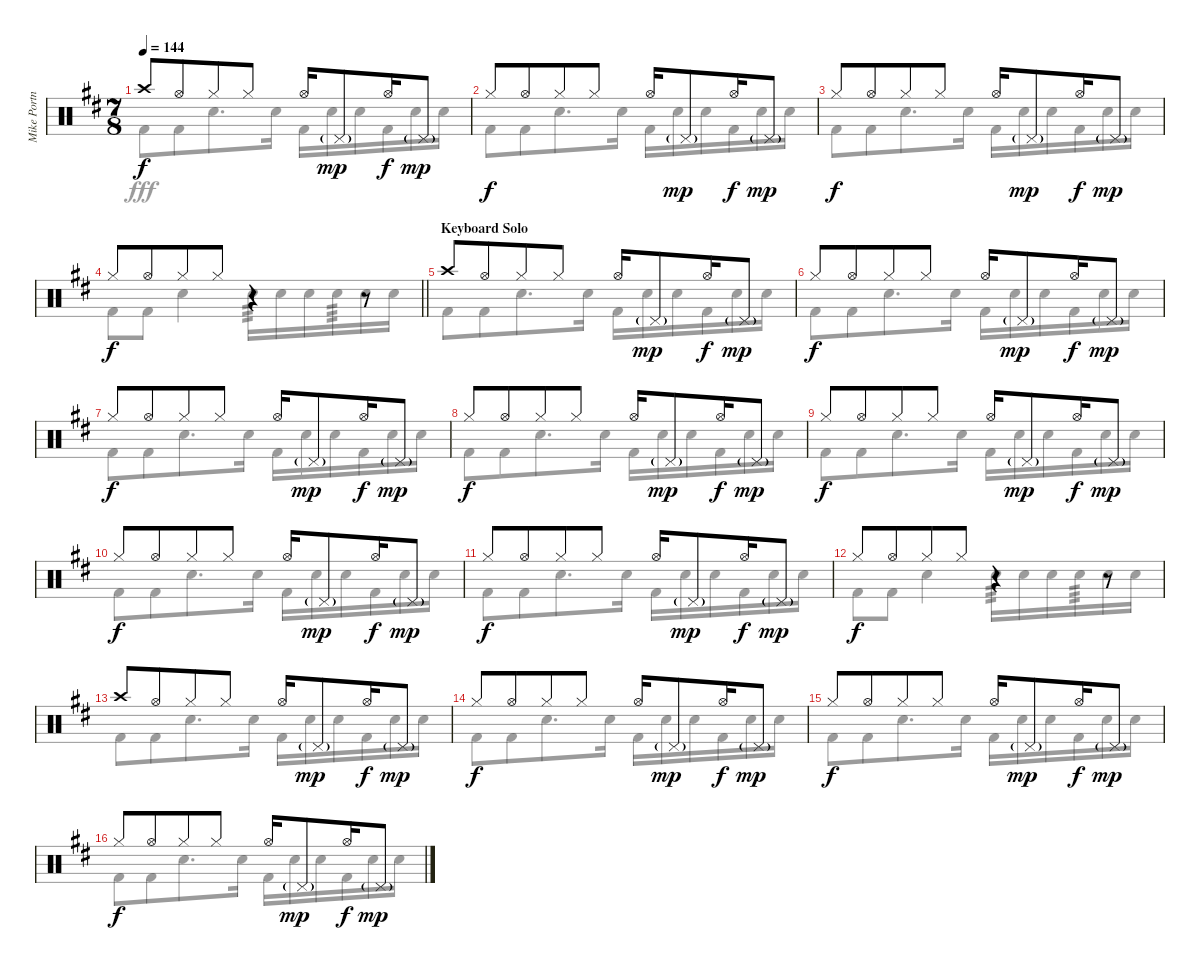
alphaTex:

\track ("Mike Portnoy Drums" "Mike Portn") {instrument percussion}
\staff {score}
\articulation defaults
\voice
\ts (7 8)
\tempo 144
\clef neutral
\ks bminor "Crash high (hit)".8{dy f} "Hi-Hat (open)".8 "Hi-Hat (closed)".8 "Hi-Hat (closed)".8 "Hi-Hat (open)".16 "Pedal Hi-Hat (hit)"{g}.8{dy mp} "Hi-Hat (open)".16{dy f} "Pedal Hi-Hat (hit)"{g}.8{dy mp}
|
"Hi-Hat (closed)".8{dy f} "Hi-Hat (open)".8 "Hi-Hat (closed)".8 "Hi-Hat (closed)".8 "Hi-Hat (open)".16 "Pedal Hi-Hat (hit)"{g}.8{dy mp} "Hi-Hat (open)".16{dy f} "Pedal Hi-Hat (hit)"{g}.8{dy mp} |
"Hi-Hat (closed)".8{dy f} "Hi-Hat (open)".8 "Hi-Hat (closed)".8 "Hi-Hat (closed)".8 "Hi-Hat (open)".16 "Pedal Hi-Hat (hit)"{g}.8{dy mp} "Hi-Hat (open)".16{dy f} "Pedal Hi-Hat (hit)"{g}.8{dy mp} |
\barLineRight lightlight "Hi-Hat (closed)".8{dy f} "Hi-Hat (open)".8 "Hi-Hat (closed)".8 "Hi-Hat (closed)".8
r.4 r.8 |
\section ("" "Keyboard Solo")
"Crash high (hit)".8 "Hi-Hat (open)".8 "Hi-Hat (closed)".8 "Hi-Hat (closed)".8 "Hi-Hat (open)".16 "Pedal Hi-Hat (hit)"{g}.8{dy mp} "Hi-Hat (open)".16{dy f} "Pedal Hi-Hat (hit)"{g}.8{dy mp} |
"Hi-Hat (closed)".8{dy f} "Hi-Hat (open)".8 "Hi-Hat (closed)".8 "Hi-Hat (closed)".8 "Hi-Hat (open)".16 "Pedal Hi-Hat (hit)"{g}.8{dy mp} "Hi-Hat (open)".16{dy f} "Pedal Hi-Hat (hit)"{g}.8{dy mp} |
"Hi-Hat (closed)".8{dy f} "Hi-Hat (open)".8 "Hi-Hat (closed)".8 "Hi-Hat (closed)".8 "Hi-Hat (open)".16 "Pedal Hi-Hat (hit)"{g}.8{dy mp} "Hi-Hat (open)".16{dy f} "Pedal Hi-Hat (hit)"{g}.8{dy mp} |
"Hi-Hat (closed)".8{dy f} "Hi-Hat (open)".8 "Hi-Hat (closed)".8 "Hi-Hat (closed)".8 "Hi-Hat (open)".16 "Pedal Hi-Hat (hit)"{g}.8{dy mp} "Hi-Hat (open)".16{dy f} "Pedal Hi-Hat (hit)"{g}.8{dy mp} |
"Hi-Hat (closed)".8{dy f} "Hi-Hat (open)".8 "Hi-Hat (closed)".8 "Hi-Hat (closed)".8 "Hi-Hat (open)".16 "Pedal Hi-Hat (hit)"{g}.8{dy mp} "Hi-Hat (open)".16{dy f} "Pedal Hi-Hat (hit)"{g}.8{dy mp} |
"Hi-Hat (closed)".8{dy f} "Hi-Hat (open)".8 "Hi-Hat (closed)".8 "Hi-Hat (closed)".8 "Hi-Hat (open)".16 "Pedal Hi-Hat (hit)"{g}.8{dy mp} "Hi-Hat (open)".16{dy f} "Pedal Hi-Hat (hit)"{g}.8{dy mp} |
"Hi-Hat (closed)".8{dy f} "Hi-Hat (open)".8 "Hi-Hat (closed)".8 "Hi-Hat (closed)".8 "Hi-Hat (open)".16 "Pedal Hi-Hat (hit)"{g}.8{dy mp} "Hi-Hat (open)".16{dy f} "Pedal Hi-Hat (hit)"{g}.8{dy mp} |
"Hi-Hat (closed)".8{dy f} "Hi-Hat (open)".8 "Hi-Hat (closed)".8 "Hi-Hat (closed)".8 r.4 r.8 |
"Crash high (hit)".8 "Hi-Hat (open)".8 "Hi-Hat (closed)".8 "Hi-Hat (closed)".8 "Hi-Hat (open)".16 "Pedal Hi-Hat (hit)"{g}.8{dy mp} "Hi-Hat (open)".16{dy f} "Pedal Hi-Hat (hit)"{g}.8{dy mp} |
"Hi-Hat (closed)".8{dy f} "Hi-Hat (open)".8 "Hi-Hat (closed)".8 "Hi-Hat (closed)".8 "Hi-Hat (open)".16 "Pedal Hi-Hat (hit)"{g}.8{dy mp} "Hi-Hat (open)".16{dy f} "Pedal Hi-Hat (hit)"{g}.8{dy mp} |
"Hi-Hat (closed)".8{dy f} "Hi-Hat (open)".8 "Hi-Hat (closed)".8 "Hi-Hat (closed)".8 "Hi-Hat (open)".16 "Pedal Hi-Hat (hit)"{g}.8{dy mp} "Hi-Hat (open)".16{dy f} "Pedal Hi-Hat (hit)"{g}.8{dy mp} |
"Hi-Hat (closed)".8{dy f} "Hi-Hat (open)".8 "Hi-Hat (closed)".8 "Hi-Hat (closed)".8 "Hi-Hat (open)".16 "Pedal Hi-Hat (hit)"{g}.8{dy mp} "Hi-Hat (open)".16{dy f} "Pedal Hi-Hat (hit)"{g}.8{dy mp}
\voice
\clef neutral
\ottava regular
\simile none
\ks bminor "Kick (hit) 2".8{dy fff} "Kick (hit) 2".8 "Snare (hit) 2".8{d} "Snare (hit) 2".16 "Kick (hit) 2".16 "Snare (hit) 2".16 "Snare (hit) 2".16 "Kick (hit) 2".16 "Snare (hit) 2".16 "Snare (hit) 2".16
|
"Kick (hit) 2".8 "Kick (hit) 2".8 "Snare (hit) 2".8{d} "Snare (hit) 2".16 "Kick (hit) 2".16 "Snare (hit) 2".16 "Snare (hit) 2".16 "Kick (hit) 2".16 "Snare (hit) 2".16 "Snare (hit) 2".16 |
"Kick (hit) 2".8 "Kick (hit) 2".8 "Snare (hit) 2".8{d} "Snare (hit) 2".16 "Kick (hit) 2".16 "Snare (hit) 2".16 "Snare (hit) 2".16 "Kick (hit) 2".16 "Snare (hit) 2".16 "Snare (hit) 2".16 |
\barLineRight lightlight "Kick (hit) 2".8 "Kick (hit) 2".8 "Snare (hit) 2".4 "Snare (hit) 2".16{tp 3} "Snare (hit) 2".16 "Snare (hit) 2".16 "Snare (hit) 2".16{tp 3} "Snare (hit) 2".16 "Snare (hit) 2".16
|
"Kick (hit) 2".8 "Kick (hit) 2".8 "Snare (hit) 2".8{d} "Snare (hit) 2".16 "Kick (hit) 2".16 "Snare (hit) 2".16 "Snare (hit) 2".16 "Kick (hit) 2".16 "Snare (hit) 2".16 "Snare (hit) 2".16 |
"Kick (hit) 2".8 "Kick (hit) 2".8 "Snare (hit) 2".8{d} "Snare (hit) 2".16 "Kick (hit) 2".16 "Snare (hit) 2".16 "Snare (hit) 2".16 "Kick (hit) 2".16 "Snare (hit) 2".16 "Snare (hit) 2".16 |
"Kick (hit) 2".8 "Kick (hit) 2".8 "Snare (hit) 2".8{d} "Snare (hit) 2".16 "Kick (hit) 2".16 "Snare (hit) 2".16 "Snare (hit) 2".16 "Kick (hit) 2".16 "Snare (hit) 2".16 "Snare (hit) 2".16 |
"Kick (hit) 2".8 "Kick (hit) 2".8 "Snare (hit) 2".8{d} "Snare (hit) 2".16 "Kick (hit) 2".16 "Snare (hit) 2".16 "Snare (hit) 2".16 "Kick (hit) 2".16 "Snare (hit) 2".16 "Snare (hit) 2".16 |
"Kick (hit) 2".8 "Kick (hit) 2".8 "Snare (hit) 2".8{d} "Snare (hit) 2".16 "Kick (hit) 2".16 "Snare (hit) 2".16 "Snare (hit) 2".16 "Kick (hit) 2".16 "Snare (hit) 2".16 "Snare (hit) 2".16 |
"Kick (hit) 2".8 "Kick (hit) 2".8 "Snare (hit) 2".8{d} "Snare (hit) 2".16 "Kick (hit) 2".16 "Snare (hit) 2".16 "Snare (hit) 2".16 "Kick (hit) 2".16 "Snare (hit) 2".16 "Snare (hit) 2".16 |
"Kick (hit) 2".8 "Kick (hit) 2".8 "Snare (hit) 2".8{d} "Snare (hit) 2".16 "Kick (hit) 2".16 "Snare (hit) 2".16 "Snare (hit) 2".16 "Kick (hit) 2".16 "Snare (hit) 2".16 "Snare (hit) 2".16 |
"Kick (hit) 2".8 "Kick (hit) 2".8 "Snare (hit) 2".4 "Snare (hit) 2".16{tp 3} "Snare (hit) 2".16 "Snare (hit) 2".16 "Snare (hit) 2".16{tp 3} "Snare (hit) 2".16 "Snare (hit) 2".16 |
"Kick (hit) 2".8 "Kick (hit) 2".8 "Snare (hit) 2".8{d} "Snare (hit) 2".16 "Kick (hit) 2".16 "Snare (hit) 2".16 "Snare (hit) 2".16 "Kick (hit) 2".16 "Snare (hit) 2".16 "Snare (hit) 2".16 |
"Kick (hit) 2".8 "Kick (hit) 2".8 "Snare (hit) 2".8{d} "Snare (hit) 2".16 "Kick (hit) 2".16 "Snare (hit) 2".16 "Snare (hit) 2".16 "Kick (hit) 2".16 "Snare (hit) 2".16 "Snare (hit) 2".16 |
"Kick (hit) 2".8 "Kick (hit) 2".8 "Snare (hit) 2".8{d} "Snare (hit) 2".16 "Kick (hit) 2".16 "Snare (hit) 2".16 "Snare (hit) 2".16 "Kick (hit) 2".16 "Snare (hit) 2".16 "Snare (hit) 2".16 |
"Kick (hit) 2".8 "Kick (hit) 2".8 "Snare (hit) 2".8{d} "Snare (hit) 2".16 "Kick (hit) 2".16 "Snare (hit) 2".16 "Snare (hit) 2".16 "Kick (hit) 2".16 "Snare (hit) 2".16 "Snare (hit) 2".16
